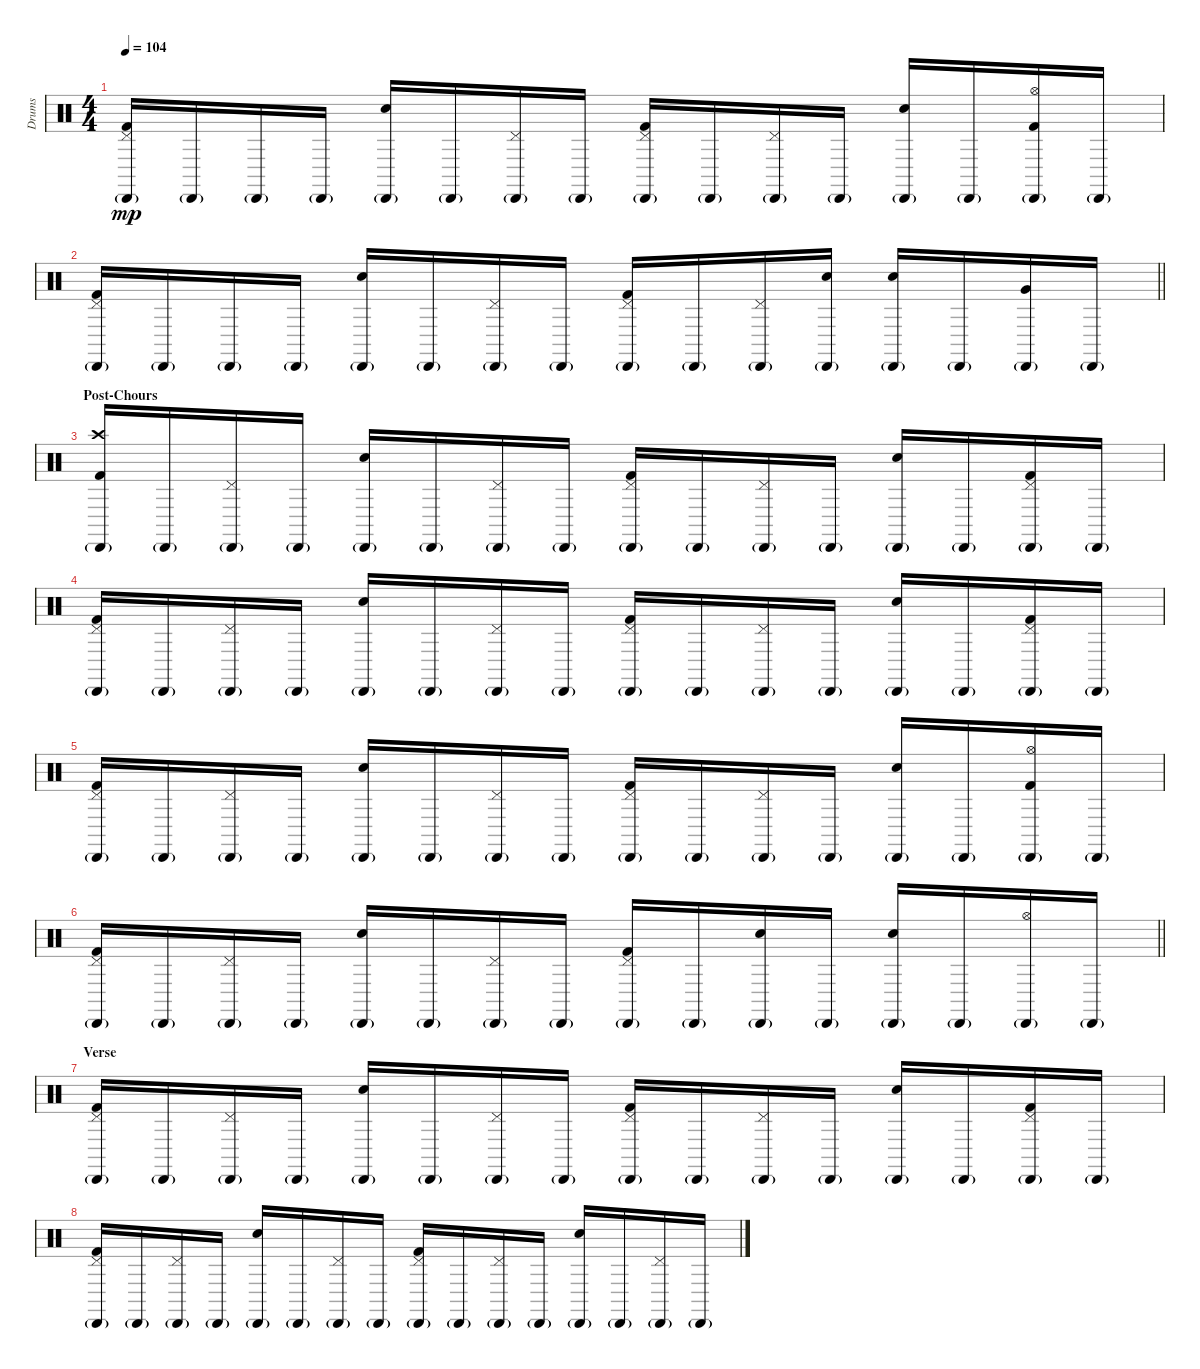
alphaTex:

\track ("Drums" "Drums") {instrument percussion}
\staff {score}
\articulation defaults
\ts (4 4)
\tempo 104
\clef neutral
\ks c
("Pedal Hi-Hat (hit)" "Cabasa (hit)"{g} "Kick (hit) 2").16{dy mp} "Cabasa (hit)"{g}.16 "Cabasa (hit)"{g}.16 "Cabasa (hit)"{g}.16 ("Snare (hit) 2" "Cabasa (hit)"{g}).16 "Cabasa (hit)"{g}.16 ("Pedal Hi-Hat (hit)" "Cabasa (hit)"{g}).16 "Cabasa (hit)"{g}.16 ("Pedal Hi-Hat (hit)" "Cabasa (hit)"{g} "Kick (hit) 2").16 "Cabasa (hit)"{g}.16 ("Pedal Hi-Hat (hit)" "Cabasa (hit)"{g}).16 "Cabasa (hit)"{g}.16 ("Snare (hit) 2" "Cabasa (hit)"{g}).16 "Cabasa (hit)"{g}.16 ("Hi-Hat (open)" "Cabasa (hit)"{g} "Kick (hit) 2").16 "Cabasa (hit)"{g}.16 |
\barLineRight lightlight
("Pedal Hi-Hat (hit)" "Cabasa (hit)"{g} "Kick (hit) 2").16 "Cabasa (hit)"{g}.16 "Cabasa (hit)"{g}.16 "Cabasa (hit)"{g}.16 ("Snare (hit) 2" "Cabasa (hit)"{g}).16 "Cabasa (hit)"{g}.16 ("Pedal Hi-Hat (hit)" "Cabasa (hit)"{g}).16 "Cabasa (hit)"{g}.16 ("Pedal Hi-Hat (hit)" "Cabasa (hit)"{g} "Kick (hit) 2").16 "Cabasa (hit)"{g}.16 ("Pedal Hi-Hat (hit)" "Cabasa (hit)"{g}).16 ("Snare (hit) 2" "Cabasa (hit)"{g}).16 ("Snare (hit) 2" "Cabasa (hit)"{g}).16 "Cabasa (hit)"{g}.16 ("Very Low Tom (hit)" "Cabasa (hit)"{g}).16 "Cabasa (hit)"{g}.16 |
\section ("" "Post-Chours")
("Crash high (hit)" "Cabasa (hit)"{g} "Kick (hit) 2").16 "Cabasa (hit)"{g}.16 ("Pedal Hi-Hat (hit)" "Cabasa (hit)"{g}).16 "Cabasa (hit)"{g}.16 ("Snare (hit) 2" "Cabasa (hit)"{g}).16 "Cabasa (hit)"{g}.16 ("Pedal Hi-Hat (hit)" "Cabasa (hit)"{g}).16 "Cabasa (hit)"{g}.16 ("Pedal Hi-Hat (hit)" "Cabasa (hit)"{g} "Kick (hit) 2").16 "Cabasa (hit)"{g}.16 ("Pedal Hi-Hat (hit)" "Cabasa (hit)"{g}).16 "Cabasa (hit)"{g}.16 ("Snare (hit) 2" "Cabasa (hit)"{g}).16 "Cabasa (hit)"{g}.16 ("Pedal Hi-Hat (hit)" "Cabasa (hit)"{g} "Kick (hit) 2").16 "Cabasa (hit)"{g}.16 |
("Pedal Hi-Hat (hit)" "Cabasa (hit)"{g} "Kick (hit) 2").16 "Cabasa (hit)"{g}.16 ("Pedal Hi-Hat (hit)" "Cabasa (hit)"{g}).16 "Cabasa (hit)"{g}.16 ("Snare (hit) 2" "Cabasa (hit)"{g}).16 "Cabasa (hit)"{g}.16 ("Pedal Hi-Hat (hit)" "Cabasa (hit)"{g}).16 "Cabasa (hit)"{g}.16 ("Pedal Hi-Hat (hit)" "Cabasa (hit)"{g} "Kick (hit) 2").16 "Cabasa (hit)"{g}.16 ("Pedal Hi-Hat (hit)" "Cabasa (hit)"{g}).16 "Cabasa (hit)"{g}.16 ("Snare (hit) 2" "Cabasa (hit)"{g}).16 "Cabasa (hit)"{g}.16 ("Pedal Hi-Hat (hit)" "Cabasa (hit)"{g} "Kick (hit) 2").16 "Cabasa (hit)"{g}.16 |
("Pedal Hi-Hat (hit)" "Cabasa (hit)"{g} "Kick (hit) 2").16 "Cabasa (hit)"{g}.16 ("Pedal Hi-Hat (hit)" "Cabasa (hit)"{g}).16 "Cabasa (hit)"{g}.16 ("Snare (hit) 2" "Cabasa (hit)"{g}).16 "Cabasa (hit)"{g}.16 ("Pedal Hi-Hat (hit)" "Cabasa (hit)"{g}).16 "Cabasa (hit)"{g}.16 ("Pedal Hi-Hat (hit)" "Cabasa (hit)"{g} "Kick (hit) 2").16 "Cabasa (hit)"{g}.16 ("Pedal Hi-Hat (hit)" "Cabasa (hit)"{g}).16 "Cabasa (hit)"{g}.16 ("Snare (hit) 2" "Cabasa (hit)"{g}).16 "Cabasa (hit)"{g}.16 ("Hi-Hat (open)" "Cabasa (hit)"{g} "Kick (hit) 2").16 "Cabasa (hit)"{g}.16 |
\barLineRight lightlight
("Pedal Hi-Hat (hit)" "Cabasa (hit)"{g} "Kick (hit) 2").16 "Cabasa (hit)"{g}.16 ("Pedal Hi-Hat (hit)" "Cabasa (hit)"{g}).16 "Cabasa (hit)"{g}.16 ("Snare (hit) 2" "Cabasa (hit)"{g}).16 "Cabasa (hit)"{g}.16 ("Pedal Hi-Hat (hit)" "Cabasa (hit)"{g}).16 "Cabasa (hit)"{g}.16 ("Pedal Hi-Hat (hit)" "Cabasa (hit)"{g} "Kick (hit) 2").16 "Cabasa (hit)"{g}.16 ("Snare (hit) 2" "Cabasa (hit)"{g}).16 "Cabasa (hit)"{g}.16 ("Snare (hit) 2" "Cabasa (hit)"{g}).16 "Cabasa (hit)"{g}.16 ("Hi-Hat (open)" "Cabasa (hit)"{g}).16 "Cabasa (hit)"{g}.16 |
\section ("" "Verse")
("Pedal Hi-Hat (hit)" "Cabasa (hit)"{g} "Kick (hit) 2").16 "Cabasa (hit)"{g}.16 ("Pedal Hi-Hat (hit)" "Cabasa (hit)"{g}).16 "Cabasa (hit)"{g}.16 ("Snare (hit) 2" "Cabasa (hit)"{g}).16 "Cabasa (hit)"{g}.16 ("Pedal Hi-Hat (hit)" "Cabasa (hit)"{g}).16 "Cabasa (hit)"{g}.16 ("Pedal Hi-Hat (hit)" "Cabasa (hit)"{g} "Kick (hit) 2").16 "Cabasa (hit)"{g}.16 ("Pedal Hi-Hat (hit)" "Cabasa (hit)"{g}).16 "Cabasa (hit)"{g}.16 ("Snare (hit) 2" "Cabasa (hit)"{g}).16 "Cabasa (hit)"{g}.16 ("Pedal Hi-Hat (hit)" "Cabasa (hit)"{g} "Kick (hit) 2").16 "Cabasa (hit)"{g}.16 |
("Pedal Hi-Hat (hit)" "Cabasa (hit)"{g} "Kick (hit) 2").16 "Cabasa (hit)"{g}.16 ("Pedal Hi-Hat (hit)" "Cabasa (hit)"{g}).16 "Cabasa (hit)"{g}.16 ("Snare (hit) 2" "Cabasa (hit)"{g}).16 "Cabasa (hit)"{g}.16 ("Pedal Hi-Hat (hit)" "Cabasa (hit)"{g}).16 "Cabasa (hit)"{g}.16 ("Pedal Hi-Hat (hit)" "Cabasa (hit)"{g} "Kick (hit) 2").16 "Cabasa (hit)"{g}.16 ("Pedal Hi-Hat (hit)" "Cabasa (hit)"{g}).16 "Cabasa (hit)"{g}.16 ("Snare (hit) 2" "Cabasa (hit)"{g}).16 "Cabasa (hit)"{g}.16 ("Pedal Hi-Hat (hit)" "Cabasa (hit)"{g}).16 "Cabasa (hit)"{g}.16
